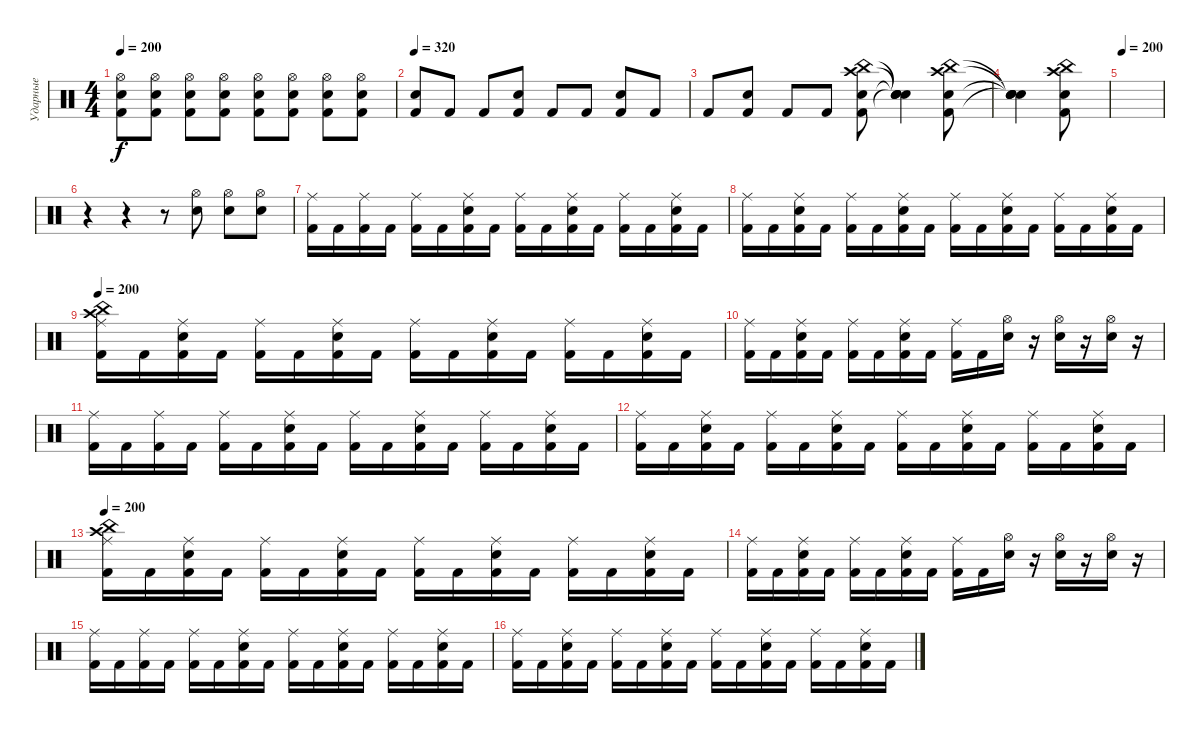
\track ("Ударные" "Ударные") {instrument percussion}
\staff {score}
\articulation defaults
\ts (4 4)
\tempo 200
\clef neutral
\ks c
("Electric Snare (hit)" "Kick (hit) 2" "Hi-Hat (open)").8{dy f} ("Hi-Hat (open)" "Kick (hit) 2" "Electric Snare (hit)").8 ("Electric Snare (hit)" "Kick (hit) 2" "Hi-Hat (open)").8 ("Hi-Hat (open)" "Kick (hit) 2" "Electric Snare (hit)").8 ("Electric Snare (hit)" "Kick (hit) 2" "Hi-Hat (open)").8 ("Hi-Hat (open)" "Kick (hit) 2" "Electric Snare (hit)").8 ("Electric Snare (hit)" "Kick (hit) 2" "Hi-Hat (open)").8 ("Hi-Hat (open)" "Kick (hit) 2" "Electric Snare (hit)").8 |
\tempo 340
\tempo 320
("Kick (hit) 2" "Electric Snare (hit)").8 "Kick (hit) 2".8 "Kick (hit) 2".8 ("Kick (hit) 2" "Electric Snare (hit)").8 "Kick (hit) 2".8 "Kick (hit) 2".8 ("Kick (hit) 2" "Electric Snare (hit)").8 "Kick (hit) 2".8 |
"Kick (hit) 2".8 ("Kick (hit) 2" "Electric Snare (hit)").8 "Kick (hit) 2".8 "Kick (hit) 2".8 ("Kick (hit) 2" "Electric Snare (hit)" "Crash high (hit)" "China (hit)").8 ("Snare (hit)"{t} "Snare (hit)"{t} "Snare (hit)"{t} "Snare (hit)"{t}).4 ("Kick (hit) 2" "Electric Snare (hit)" "Crash high (hit)" "China (hit)").8 |
("Snare (hit)"{t} "Snare (hit)"{t} "Snare (hit)"{t} "Snare (hit)"{t}).4 ("China (hit)" "Crash high (hit)" "Kick (hit) 2" "Electric Snare (hit)").8 |
\tempo 200
|
r.4 r.4 r.8 ("Electric Snare (hit)" "Hi-Hat (open)").8 ("Hi-Hat (open)" "Electric Snare (hit)").8 ("Electric Snare (hit)" "Hi-Hat (open)").8 |
("Kick (hit) 2" "Ride (middle)").16 "Kick (hit) 2".16 ("Kick (hit) 2" "Ride (middle)").16 "Kick (hit) 2".16 ("Kick (hit) 2" "Ride (middle)").16 "Kick (hit) 2".16 ("Kick (hit) 2" "Electric Snare (hit)" "Ride (middle)").16 "Kick (hit) 2".16 ("Kick (hit) 2" "Ride (middle)").16 "Kick (hit) 2".16 ("Kick (hit) 2" "Electric Snare (hit)" "Ride (middle)").16 "Kick (hit) 2".16 ("Kick (hit) 2" "Ride (middle)").16 "Kick (hit) 2".16 ("Kick (hit) 2" "Electric Snare (hit)" "Ride (middle)").16 "Kick (hit) 2".16 |
("Kick (hit) 2" "Ride (middle)").16 "Kick (hit) 2".16 ("Kick (hit) 2" "Ride (middle)" "Electric Snare (hit)").16 "Kick (hit) 2".16 ("Kick (hit) 2" "Ride (middle)").16 "Kick (hit) 2".16 ("Kick (hit) 2" "Electric Snare (hit)" "Ride (middle)").16 "Kick (hit) 2".16 ("Kick (hit) 2" "Ride (middle)").16 "Kick (hit) 2".16 ("Kick (hit) 2" "Electric Snare (hit)" "Ride (middle)").16 "Kick (hit) 2".16 ("Kick (hit) 2" "Ride (middle)").16 "Kick (hit) 2".16 ("Kick (hit) 2" "Electric Snare (hit)" "Ride (middle)").16 "Kick (hit) 2".16 |
\tempo 200
("Kick (hit) 2" "Ride (middle)" "China (hit)" "Crash high (hit)").16 "Kick (hit) 2".16 ("Kick (hit) 2" "Ride (middle)" "Electric Snare (hit)").16 "Kick (hit) 2".16 ("Kick (hit) 2" "Ride (middle)").16 "Kick (hit) 2".16 ("Kick (hit) 2" "Electric Snare (hit)" "Ride (middle)").16 "Kick (hit) 2".16 ("Kick (hit) 2" "Ride (middle)").16 "Kick (hit) 2".16 ("Kick (hit) 2" "Electric Snare (hit)" "Ride (middle)").16 "Kick (hit) 2".16 ("Kick (hit) 2" "Ride (middle)").16 "Kick (hit) 2".16 ("Kick (hit) 2" "Electric Snare (hit)" "Ride (middle)").16 "Kick (hit) 2".16 |
("Kick (hit) 2" "Ride (middle)").16 "Kick (hit) 2".16 ("Kick (hit) 2" "Ride (middle)" "Electric Snare (hit)").16 "Kick (hit) 2".16 ("Kick (hit) 2" "Ride (middle)").16 "Kick (hit) 2".16 ("Kick (hit) 2" "Electric Snare (hit)" "Ride (middle)").16 "Kick (hit) 2".16 ("Kick (hit) 2" "Ride (middle)").16 "Kick (hit) 2".16 ("Electric Snare (hit)" "Hi-Hat (open)").16 r.16 ("Electric Snare (hit)" "Hi-Hat (open)").16 r.16 ("Electric Snare (hit)" "Hi-Hat (open)").16 r.16 |
("Kick (hit) 2" "Ride (middle)").16 "Kick (hit) 2".16 ("Kick (hit) 2" "Ride (middle)").16 "Kick (hit) 2".16 ("Kick (hit) 2" "Ride (middle)").16 "Kick (hit) 2".16 ("Kick (hit) 2" "Electric Snare (hit)" "Ride (middle)").16 "Kick (hit) 2".16 ("Kick (hit) 2" "Ride (middle)").16 "Kick (hit) 2".16 ("Kick (hit) 2" "Electric Snare (hit)" "Ride (middle)").16 "Kick (hit) 2".16 ("Kick (hit) 2" "Ride (middle)").16 "Kick (hit) 2".16 ("Kick (hit) 2" "Electric Snare (hit)" "Ride (middle)").16 "Kick (hit) 2".16 |
("Kick (hit) 2" "Ride (middle)").16 "Kick (hit) 2".16 ("Kick (hit) 2" "Ride (middle)" "Electric Snare (hit)").16 "Kick (hit) 2".16 ("Kick (hit) 2" "Ride (middle)").16 "Kick (hit) 2".16 ("Kick (hit) 2" "Electric Snare (hit)" "Ride (middle)").16 "Kick (hit) 2".16 ("Kick (hit) 2" "Ride (middle)").16 "Kick (hit) 2".16 ("Kick (hit) 2" "Electric Snare (hit)" "Ride (middle)").16 "Kick (hit) 2".16 ("Kick (hit) 2" "Ride (middle)").16 "Kick (hit) 2".16 ("Kick (hit) 2" "Electric Snare (hit)" "Ride (middle)").16 "Kick (hit) 2".16 |
\tempo 200
("Kick (hit) 2" "Ride (middle)" "China (hit)" "Crash high (hit)").16 "Kick (hit) 2".16 ("Kick (hit) 2" "Ride (middle)" "Electric Snare (hit)").16 "Kick (hit) 2".16 ("Kick (hit) 2" "Ride (middle)").16 "Kick (hit) 2".16 ("Kick (hit) 2" "Electric Snare (hit)" "Ride (middle)").16 "Kick (hit) 2".16 ("Kick (hit) 2" "Ride (middle)").16 "Kick (hit) 2".16 ("Kick (hit) 2" "Electric Snare (hit)" "Ride (middle)").16 "Kick (hit) 2".16 ("Kick (hit) 2" "Ride (middle)").16 "Kick (hit) 2".16 ("Kick (hit) 2" "Electric Snare (hit)" "Ride (middle)").16 "Kick (hit) 2".16 |
("Kick (hit) 2" "Ride (middle)").16 "Kick (hit) 2".16 ("Kick (hit) 2" "Ride (middle)" "Electric Snare (hit)").16 "Kick (hit) 2".16 ("Kick (hit) 2" "Ride (middle)").16 "Kick (hit) 2".16 ("Kick (hit) 2" "Electric Snare (hit)" "Ride (middle)").16 "Kick (hit) 2".16 ("Kick (hit) 2" "Ride (middle)").16 "Kick (hit) 2".16 ("Electric Snare (hit)" "Hi-Hat (open)").16 r.16 ("Electric Snare (hit)" "Hi-Hat (open)").16 r.16 ("Electric Snare (hit)" "Hi-Hat (open)").16 r.16 |
("Kick (hit) 2" "Ride (middle)").16 "Kick (hit) 2".16 ("Kick (hit) 2" "Ride (middle)").16 "Kick (hit) 2".16 ("Kick (hit) 2" "Ride (middle)").16 "Kick (hit) 2".16 ("Kick (hit) 2" "Electric Snare (hit)" "Ride (middle)").16 "Kick (hit) 2".16 ("Kick (hit) 2" "Ride (middle)").16 "Kick (hit) 2".16 ("Kick (hit) 2" "Electric Snare (hit)" "Ride (middle)").16 "Kick (hit) 2".16 ("Kick (hit) 2" "Ride (middle)").16 "Kick (hit) 2".16 ("Kick (hit) 2" "Electric Snare (hit)" "Ride (middle)").16 "Kick (hit) 2".16 |
("Kick (hit) 2" "Ride (middle)").16 "Kick (hit) 2".16 ("Kick (hit) 2" "Ride (middle)" "Electric Snare (hit)").16 "Kick (hit) 2".16 ("Kick (hit) 2" "Ride (middle)").16 "Kick (hit) 2".16 ("Kick (hit) 2" "Electric Snare (hit)" "Ride (middle)").16 "Kick (hit) 2".16 ("Kick (hit) 2" "Ride (middle)").16 "Kick (hit) 2".16 ("Kick (hit) 2" "Electric Snare (hit)" "Ride (middle)").16 "Kick (hit) 2".16 ("Kick (hit) 2" "Ride (middle)").16 "Kick (hit) 2".16 ("Kick (hit) 2" "Electric Snare (hit)" "Ride (middle)").16 "Kick (hit) 2".16
